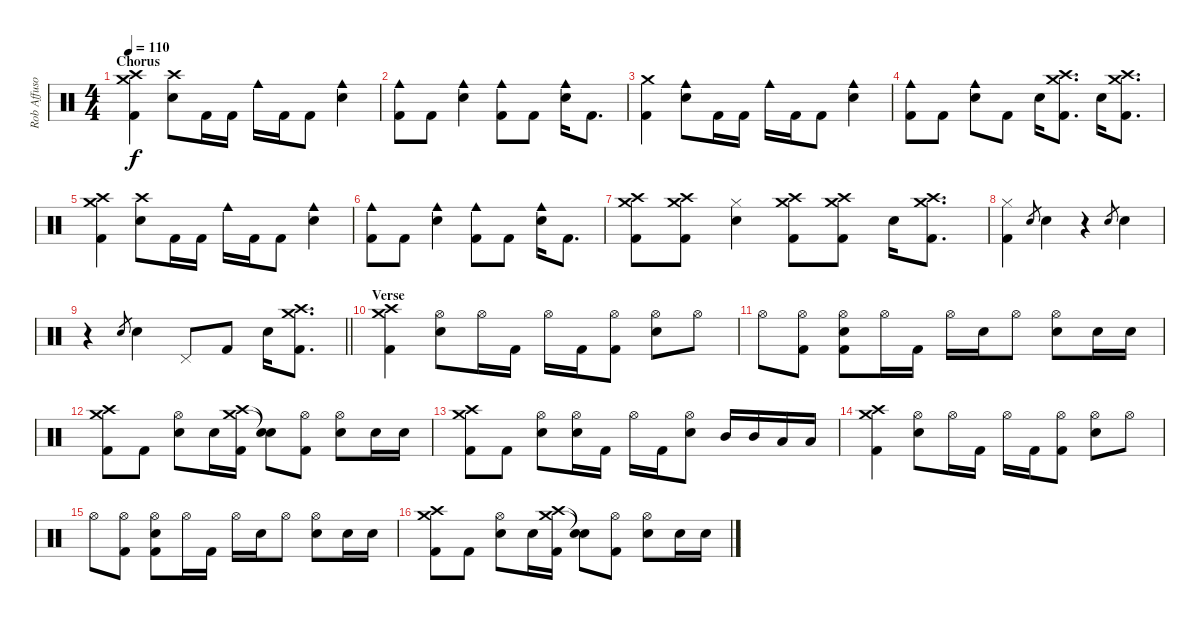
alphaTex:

\track ("Rob Affuso - Drums" "Rob Affuso") {instrument percussion}
\staff {score}
\articulation defaults
\ts (4 4)
\section ("" "Chorus")
\tempo 110
\clef neutral
\ks c
("Crash medium (hit)" "Crash high (hit)" "Kick (hit) 2").4{dy f} ("Crash high (hit)" "Snare (hit) 2").8 "Kick (hit) 2".16 "Kick (hit) 2".16 "Cowbell medium (hit)".16 "Kick (hit) 2".16 "Kick (hit) 2".8 ("Cowbell medium (hit)" "Snare (hit) 2").4 |
("Cowbell medium (hit)" "Kick (hit) 2").8 "Kick (hit) 2".8 ("Cowbell medium (hit)" "Snare (hit) 2").4 ("Cowbell medium (hit)" "Kick (hit) 2").8 "Kick (hit) 2".8 ("Cowbell medium (hit)" "Snare (hit) 2").16 "Kick (hit) 2".8{d} |
("Crash medium (hit)" "Kick (hit) 2").4 ("Cowbell medium (hit)" "Snare (hit) 2").8 "Kick (hit) 2".16 "Kick (hit) 2".16 "Cowbell medium (hit)".16 "Kick (hit) 2".16 "Kick (hit) 2".8 ("Cowbell medium (hit)" "Snare (hit) 2").4 |
("Cowbell medium (hit)" "Kick (hit) 2").8 "Kick (hit) 2".8 ("Cowbell medium (hit)" "Snare (hit) 2").8 "Kick (hit) 2".8 "Snare (hit) 2".16 ("Crash medium (hit)" "Crash high (hit)" "Kick (hit) 2").8{d} "Snare (hit) 2".16 ("Crash high (hit)" "Crash medium (hit)" "Kick (hit) 2").8{d} |
("Crash medium (hit)" "Crash high (hit)" "Kick (hit) 2").4 ("Crash high (hit)" "Snare (hit) 2").8 "Kick (hit) 2".16 "Kick (hit) 2".16 "Cowbell medium (hit)".16 "Kick (hit) 2".16 "Kick (hit) 2".8 ("Cowbell medium (hit)" "Snare (hit) 2").4 |
("Cowbell medium (hit)" "Kick (hit) 2").8 "Kick (hit) 2".8 ("Cowbell medium (hit)" "Snare (hit) 2").4 ("Cowbell medium (hit)" "Kick (hit) 2").8 "Kick (hit) 2".8 ("Cowbell medium (hit)" "Snare (hit) 2").16 "Kick (hit) 2".8{d} |
("Crash medium (hit)" "Crash high (hit)" "Kick (hit) 2").8 ("Crash high (hit)" "Crash medium (hit)" "Kick (hit) 2").8 ("Hi-Hat (closed)" "Snare (hit) 2").4 ("Crash medium (hit)" "Crash high (hit)" "Kick (hit) 2").8 ("Crash high (hit)" "Crash medium (hit)" "Kick (hit) 2").8 "Snare (hit) 2".16 ("Crash medium (hit)" "Crash high (hit)" "Kick (hit) 2").8{d} |
("Hi-Hat (closed)" "Kick (hit) 2").4 "Snare (hit) 2".8{gr} "Snare (hit) 2".4 r.4 "Snare (hit) 2".8{gr} "Snare (hit) 2".4 |
\barLineRight lightlight
r.4 "Snare (hit) 2".8{gr} "Snare (hit) 2".4 "Pedal Hi-Hat (hit)".8 "Kick (hit) 2".8 "Snare (hit) 2".16 ("Crash medium (hit)" "Crash high (hit)" "Kick (hit) 2").8{d} |
\section ("" "Verse")
("Crash medium (hit)" "Crash high (hit)" "Kick (hit) 2").4 ("Hi-Hat (open)" "Snare (hit) 2").8 "Hi-Hat (open)".16 "Kick (hit) 2".16 "Hi-Hat (open)".16 "Kick (hit) 2".16 ("Hi-Hat (open)" "Kick (hit) 2").8 ("Hi-Hat (open)" "Snare (hit) 2").8 "Hi-Hat (open)".8 |
"Hi-Hat (open)".8 ("Hi-Hat (open)" "Kick (hit) 2").8 ("Hi-Hat (open)" "Snare (hit) 2" "Kick (hit) 2").8 "Hi-Hat (open)".16 "Kick (hit) 2".16 "Hi-Hat (open)".16 "Snare (hit) 2".16 "Hi-Hat (open)".8 ("Hi-Hat (open)" "Snare (hit) 2").8 "Snare (hit) 2".16 "Snare (hit) 2".16 |
("Crash medium (hit)" "Crash high (hit)" "Kick (hit) 2").8 "Kick (hit) 2".8 ("Hi-Hat (open)" "Snare (hit) 2").8 "Snare (hit) 2".16 ("Crash medium (hit)" "Crash high (hit)" "Kick (hit) 2").16 ("Snare (hit)"{t} "Snare (hit)"{t}).8 ("Hi-Hat (open)" "Kick (hit) 2").8 ("Hi-Hat (open)" "Snare (hit) 2").8 "Snare (hit) 2".16 "Snare (hit) 2".16 |
("Crash medium (hit)" "Crash high (hit)" "Kick (hit) 2").8 "Kick (hit) 2".8 ("Hi-Hat (open)" "Snare (hit) 2").8 ("Hi-Hat (open)" "Snare (hit) 2").16 "Kick (hit) 2".16 "Hi-Hat (open)".16 "Kick (hit) 2".16 ("Hi-Hat (open)" "Snare (hit) 2").8 "Mid Tom (hit)".16 "Mid Tom (hit)".16 "Low Tom (hit)".16 "Low Tom (hit)".16 |
("Crash medium (hit)" "Crash high (hit)" "Kick (hit) 2").4 ("Hi-Hat (open)" "Snare (hit) 2").8 "Hi-Hat (open)".16 "Kick (hit) 2".16 "Hi-Hat (open)".16 "Kick (hit) 2".16 ("Hi-Hat (open)" "Kick (hit) 2").8 ("Hi-Hat (open)" "Snare (hit) 2").8 "Hi-Hat (open)".8 |
"Hi-Hat (open)".8 ("Hi-Hat (open)" "Kick (hit) 2").8 ("Hi-Hat (open)" "Snare (hit) 2" "Kick (hit) 2").8 "Hi-Hat (open)".16 "Kick (hit) 2".16 "Hi-Hat (open)".16 "Snare (hit) 2".16 "Hi-Hat (open)".8 ("Hi-Hat (open)" "Snare (hit) 2").8 "Snare (hit) 2".16 "Snare (hit) 2".16 |
("Crash medium (hit)" "Crash high (hit)" "Kick (hit) 2").8 "Kick (hit) 2".8 ("Hi-Hat (open)" "Snare (hit) 2").8 "Snare (hit) 2".16 ("Crash medium (hit)" "Crash high (hit)" "Kick (hit) 2").16 ("Snare (hit)"{t} "Snare (hit)"{t}).8 ("Hi-Hat (open)" "Kick (hit) 2").8 ("Hi-Hat (open)" "Snare (hit) 2").8 "Snare (hit) 2".16 "Snare (hit) 2".16
